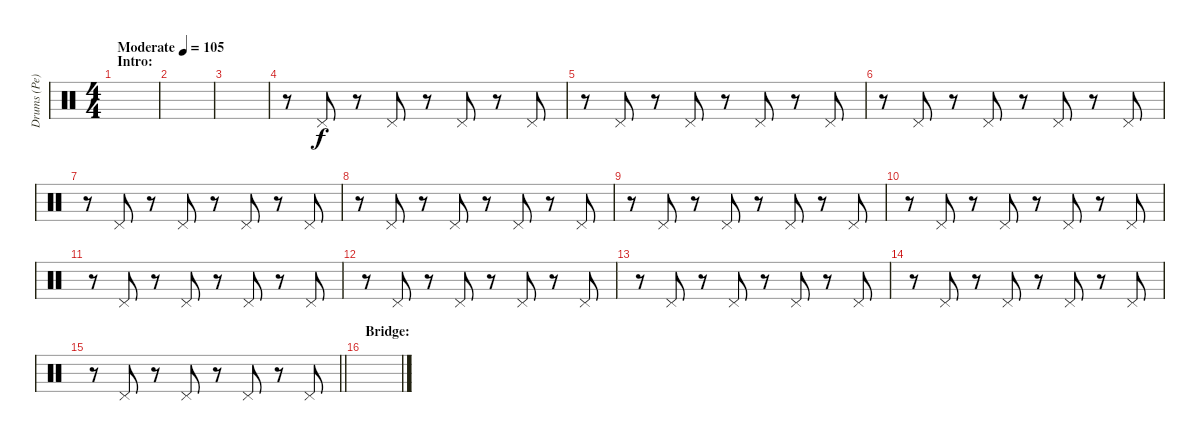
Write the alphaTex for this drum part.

\track ("Drums (Pe)" "Drums (Pe)") {instrument percussion}
\staff {score}
\articulation defaults
\ts (4 4)
\section ("" "Intro:")
\tempo (105 "Moderate")
\clef neutral
\ks c
|
|
|
r.8 "Pedal Hi-Hat (hit)".8 r.8 "Pedal Hi-Hat (hit)".8 r.8 "Pedal Hi-Hat (hit)".8 r.8 "Pedal Hi-Hat (hit)".8 |
r.8 "Pedal Hi-Hat (hit)".8 r.8 "Pedal Hi-Hat (hit)".8 r.8 "Pedal Hi-Hat (hit)".8 r.8 "Pedal Hi-Hat (hit)".8 |
r.8 "Pedal Hi-Hat (hit)".8 r.8 "Pedal Hi-Hat (hit)".8 r.8 "Pedal Hi-Hat (hit)".8 r.8 "Pedal Hi-Hat (hit)".8 |
r.8 "Pedal Hi-Hat (hit)".8 r.8 "Pedal Hi-Hat (hit)".8 r.8 "Pedal Hi-Hat (hit)".8 r.8 "Pedal Hi-Hat (hit)".8 |
r.8 "Pedal Hi-Hat (hit)".8 r.8 "Pedal Hi-Hat (hit)".8 r.8 "Pedal Hi-Hat (hit)".8 r.8 "Pedal Hi-Hat (hit)".8 |
r.8 "Pedal Hi-Hat (hit)".8 r.8 "Pedal Hi-Hat (hit)".8 r.8 "Pedal Hi-Hat (hit)".8 r.8 "Pedal Hi-Hat (hit)".8 |
r.8 "Pedal Hi-Hat (hit)".8 r.8 "Pedal Hi-Hat (hit)".8 r.8 "Pedal Hi-Hat (hit)".8 r.8 "Pedal Hi-Hat (hit)".8 |
r.8 "Pedal Hi-Hat (hit)".8 r.8 "Pedal Hi-Hat (hit)".8 r.8 "Pedal Hi-Hat (hit)".8 r.8 "Pedal Hi-Hat (hit)".8 |
r.8 "Pedal Hi-Hat (hit)".8 r.8 "Pedal Hi-Hat (hit)".8 r.8 "Pedal Hi-Hat (hit)".8 r.8 "Pedal Hi-Hat (hit)".8 |
r.8 "Pedal Hi-Hat (hit)".8 r.8 "Pedal Hi-Hat (hit)".8 r.8 "Pedal Hi-Hat (hit)".8 r.8 "Pedal Hi-Hat (hit)".8 |
r.8 "Pedal Hi-Hat (hit)".8 r.8 "Pedal Hi-Hat (hit)".8 r.8 "Pedal Hi-Hat (hit)".8 r.8 "Pedal Hi-Hat (hit)".8 |
\barLineRight lightlight
r.8 "Pedal Hi-Hat (hit)".8 r.8 "Pedal Hi-Hat (hit)".8 r.8 "Pedal Hi-Hat (hit)".8 r.8 "Pedal Hi-Hat (hit)".8 |
\section ("" "Bridge:")
